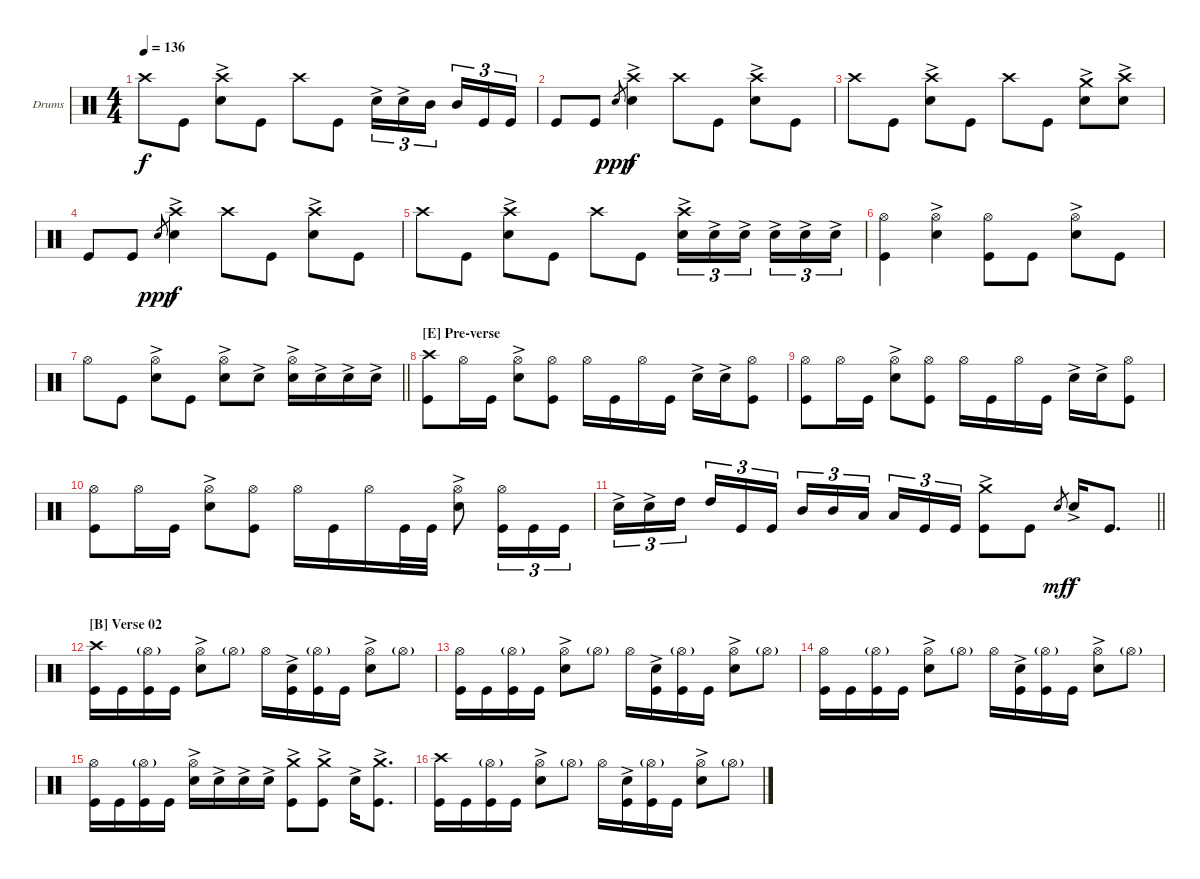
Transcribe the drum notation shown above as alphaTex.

\bracketExtendMode groupsimilarinstruments
\firstSystemTrackNameOrientation horizontal
\otherSystemsTrackNameOrientation horizontal
\track ("Drumkit" "Drums") {instrument percussion}
\staff {score}
\articulation defaults
\ts (4 4)
\tempo 136
\clef neutral
\ks c "Crash high (hit)".8{dy f} "Kick (hit)".8
("Crash high (hit)" "Snare (hit) 2"{ac}).8 "Kick (hit)".8 "Crash high (hit)".8 "Kick (hit)".8 "Snare (hit) 2"{ac}.16{tu (3 2)} "Snare (hit) 2"{ac}.16{tu (3 2)} "Mid Tom (hit)".16{tu (3 2)} "Mid Tom (hit)".16{tu (3 2)} "Kick (hit)".16{tu (3 2)} "Kick (hit)".16{tu (3 2)} |
"Kick (hit)".8 "Kick (hit)".8 "Snare (hit) 2".8{gr dy ppp} ("Crash high (hit)" "Snare (hit) 2"{ac}).4{dy f} "Crash high (hit)".8 "Kick (hit)".8 ("Crash high (hit)" "Snare (hit) 2"{ac}).8 "Kick (hit)".8 |
"Crash high (hit)".8 "Kick (hit)".8 ("Crash high (hit)" "Snare (hit) 2"{ac}).8 "Kick (hit)".8 "Crash high (hit)".8 "Kick (hit)".8 ("Crash medium (hit)"{ac} "Snare (hit) 2"{ac}).8 ("Crash high (hit)" "Snare (hit) 2"{ac}).8 |
"Kick (hit)".8 "Kick (hit)".8 "Snare (hit) 2".8{gr dy ppp} ("Crash high (hit)" "Snare (hit) 2"{ac}).4{dy f} "Crash high (hit)".8 "Kick (hit)".8 ("Crash high (hit)" "Snare (hit) 2"{ac}).8 "Kick (hit)".8 |
"Crash high (hit)".8 "Kick (hit)".8 ("Crash high (hit)" "Snare (hit) 2"{ac}).8 "Kick (hit)".8 "Crash high (hit)".8 "Kick (hit)".8 ("Crash high (hit)" "Snare (hit) 2"{ac}).16{tu (3 2)} "Snare (hit) 2"{ac}.16{tu (3 2)} "Snare (hit) 2"{ac}.16{tu (3 2)} "Snare (hit) 2"{ac}.16{tu (3 2)} "Snare (hit) 2"{ac}.16{tu (3 2)} "Snare (hit) 2"{ac}.16{tu (3 2)} |
("Hi-Hat (open)" "Kick (hit)").4 ("Hi-Hat (open)" "Snare (hit) 2"{ac}).4 ("Hi-Hat (open)" "Kick (hit)").8 "Kick (hit)".8 ("Hi-Hat (open)" "Snare (hit) 2"{ac}).8 "Kick (hit)".8 |
\barLineRight lightlight "Hi-Hat (open)".8 "Kick (hit)".8
("Hi-Hat (open)" "Snare (hit) 2"{ac}).8 "Kick (hit)".8 ("Hi-Hat (open)" "Snare (hit) 2"{ac}).8 "Snare (hit) 2"{ac}.8 ("Hi-Hat (open)" "Snare (hit) 2"{ac}).16 "Snare (hit) 2"{ac}.16 "Snare (hit) 2"{ac}.16 "Snare (hit) 2"{ac}.16 |
\section ("E" "Pre-verse")
("Crash high (hit)" "Kick (hit)").8 "Hi-Hat (open)".16 "Kick (hit)".16 ("Hi-Hat (open)" "Snare (hit) 2"{ac}).8 ("Hi-Hat (open)" "Kick (hit)").8 "Hi-Hat (open)".16 "Kick (hit)".16 "Hi-Hat (open)".16 "Kick (hit)".16 "Snare (hit) 2"{ac}.16 "Snare (hit) 2"{ac}.16 ("Hi-Hat (open)" "Kick (hit)").8 |
("Hi-Hat (open)" "Kick (hit)").8 "Hi-Hat (open)".16 "Kick (hit)".16 ("Hi-Hat (open)" "Snare (hit) 2"{ac}).8 ("Hi-Hat (open)" "Kick (hit)").8 "Hi-Hat (open)".16 "Kick (hit)".16 "Hi-Hat (open)".16 "Kick (hit)".16 "Snare (hit) 2"{ac}.16 "Snare (hit) 2"{ac}.16 ("Hi-Hat (open)" "Kick (hit)").8 |
("Hi-Hat (open)" "Kick (hit)").8 "Hi-Hat (open)".16 "Kick (hit)".16 ("Hi-Hat (open)" "Snare (hit) 2"{ac}).8 ("Hi-Hat (open)" "Kick (hit)").8 "Hi-Hat (open)".16 "Kick (hit)".16 "Hi-Hat (open)".16 "Kick (hit)".32 "Kick (hit)".32 ("Hi-Hat (open)" "Snare (hit) 2"{ac}).8 ("Hi-Hat (open)" "Kick (hit)").16{tu (3 2)} "Kick (hit)".16{tu (3 2)} "Kick (hit)".16{tu (3 2)} |
\barLineRight lightlight "Snare (hit) 2"{ac}.16{tu (3 2)} "Snare (hit) 2"{ac}.16{tu (3 2)} "High Tom (hit)".16{tu (3 2)} "High Tom (hit)".16{tu (3 2)} "Kick (hit)".16{tu (3 2)} "Kick (hit)".16{tu (3 2)} "Mid Tom (hit)".16{tu (3 2)} "Mid Tom (hit)".16{tu (3 2)} "Low Tom (hit)".16{tu (3 2)} "Low Tom (hit)".16{tu (3 2)} "Kick (hit)".16{tu (3 2)} "Kick (hit)".16{tu (3 2)}
("Crash medium (hit)"{ac} "Kick (hit)").8 "Kick (hit)".8 "Snare (hit) 2".8{gr dy mf} "Snare (hit) 2"{ac}.16{dy f} "Kick (hit)".8{d} |
\section ("B" "Verse 02")
("Crash high (hit)" "Kick (hit)").16 "Kick (hit)".16 ("Kick (hit)" "Hi-Hat (open)"{g}).16 "Kick (hit)".16 ("Hi-Hat (open)" "Snare (hit) 2"{ac}).8 "Hi-Hat (open)"{g}.8 "Hi-Hat (open)".16 ("Snare (hit) 2"{ac} "Kick (hit)").16 ("Kick (hit)" "Hi-Hat (open)"{g}).16 "Kick (hit)".16 ("Hi-Hat (open)" "Snare (hit) 2"{ac}).8 "Hi-Hat (open)"{g}.8 |
("Hi-Hat (open)" "Kick (hit)").16 "Kick (hit)".16 ("Kick (hit)" "Hi-Hat (open)"{g}).16 "Kick (hit)".16 ("Hi-Hat (open)" "Snare (hit) 2"{ac}).8 "Hi-Hat (open)"{g}.8 "Hi-Hat (open)".16 ("Snare (hit) 2"{ac} "Kick (hit)").16 ("Kick (hit)" "Hi-Hat (open)"{g}).16 "Kick (hit)".16 ("Hi-Hat (open)" "Snare (hit) 2"{ac}).8 "Hi-Hat (open)"{g}.8 |
("Hi-Hat (open)" "Kick (hit)").16 "Kick (hit)".16 ("Kick (hit)" "Hi-Hat (open)"{g}).16 "Kick (hit)".16 ("Hi-Hat (open)" "Snare (hit) 2"{ac}).8 "Hi-Hat (open)"{g}.8 "Hi-Hat (open)".16 ("Snare (hit) 2"{ac} "Kick (hit)").16 ("Kick (hit)" "Hi-Hat (open)"{g}).16 "Kick (hit)".16 ("Hi-Hat (open)" "Snare (hit) 2"{ac}).8 "Hi-Hat (open)"{g}.8 |
("Hi-Hat (open)" "Kick (hit)").16 "Kick (hit)".16 ("Kick (hit)" "Hi-Hat (open)"{g}).16 "Kick (hit)".16 ("Hi-Hat (open)" "Snare (hit) 2"{ac}).16 "Snare (hit) 2"{ac}.16 "Snare (hit) 2"{ac}.16 "Snare (hit) 2"{ac}.16 ("Crash medium (hit)"{ac} "Kick (hit)").8 ("Crash medium (hit)"{ac} "Kick (hit)").8 "Snare (hit) 2"{ac}.16 ("Crash medium (hit)"{ac} "Kick (hit)").8{d} |
("Crash high (hit)" "Kick (hit)").16 "Kick (hit)".16 ("Kick (hit)" "Hi-Hat (open)"{g}).16 "Kick (hit)".16 ("Hi-Hat (open)" "Snare (hit) 2"{ac}).8 "Hi-Hat (open)"{g}.8 "Hi-Hat (open)".16 ("Snare (hit) 2"{ac} "Kick (hit)").16 ("Kick (hit)" "Hi-Hat (open)"{g}).16 "Kick (hit)".16 ("Hi-Hat (open)" "Snare (hit) 2"{ac}).8 "Hi-Hat (open)"{g}.8
